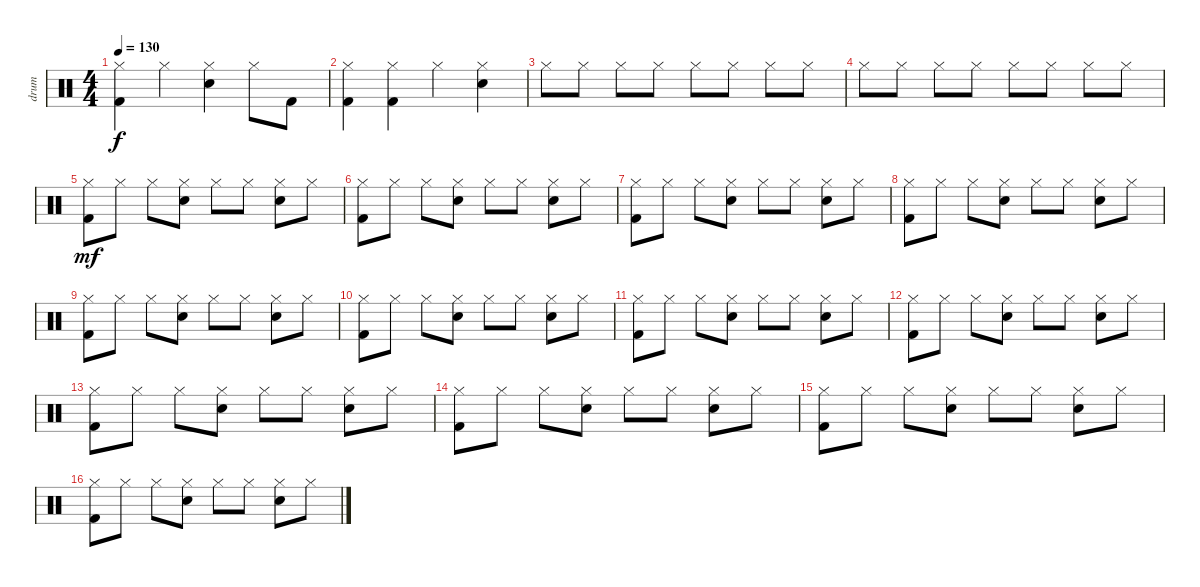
\track ("drum" "drum") {instrument percussion}
\staff {score}
\articulation defaults
\ts (4 4)
\tempo 130
\clef neutral
\ks c
("Hi-Hat (closed)" "Kick (hit) 2").4{dy f} "Hi-Hat (closed)".4 ("Hi-Hat (closed)" "Snare (hit) 2").4 "Hi-Hat (closed)".8 "Kick (hit) 2".8 |
("Hi-Hat (closed)" "Kick (hit) 2").4 ("Hi-Hat (closed)" "Kick (hit) 2").4 "Hi-Hat (closed)".4 ("Hi-Hat (closed)" "Snare (hit) 2").4 |
"Hi-Hat (closed)".8 "Hi-Hat (closed)".8 "Hi-Hat (closed)".8 "Hi-Hat (closed)".8 "Hi-Hat (closed)".8 "Hi-Hat (closed)".8 "Hi-Hat (closed)".8 "Hi-Hat (closed)".8 |
"Hi-Hat (closed)".8 "Hi-Hat (closed)".8 "Hi-Hat (closed)".8 "Hi-Hat (closed)".8 "Hi-Hat (closed)".8 "Hi-Hat (closed)".8 "Hi-Hat (closed)".8 "Hi-Hat (closed)".8 |
("Hi-Hat (closed)" "Kick (hit) 2").8{dy mf} "Hi-Hat (closed)".8 "Hi-Hat (closed)".8 ("Hi-Hat (closed)" "Snare (hit) 2").8 "Hi-Hat (closed)".8 "Hi-Hat (closed)".8 ("Hi-Hat (closed)" "Snare (hit) 2").8 "Hi-Hat (closed)".8 |
("Hi-Hat (closed)" "Kick (hit) 2").8 "Hi-Hat (closed)".8 "Hi-Hat (closed)".8 ("Hi-Hat (closed)" "Snare (hit) 2").8 "Hi-Hat (closed)".8 "Hi-Hat (closed)".8 ("Hi-Hat (closed)" "Snare (hit) 2").8 "Hi-Hat (closed)".8 |
("Hi-Hat (closed)" "Kick (hit) 2").8 "Hi-Hat (closed)".8 "Hi-Hat (closed)".8 ("Hi-Hat (closed)" "Snare (hit) 2").8 "Hi-Hat (closed)".8 "Hi-Hat (closed)".8 ("Hi-Hat (closed)" "Snare (hit) 2").8 "Hi-Hat (closed)".8 |
("Hi-Hat (closed)" "Kick (hit) 2").8 "Hi-Hat (closed)".8 "Hi-Hat (closed)".8 ("Hi-Hat (closed)" "Snare (hit) 2").8 "Hi-Hat (closed)".8 "Hi-Hat (closed)".8 ("Hi-Hat (closed)" "Snare (hit) 2").8 "Hi-Hat (closed)".8 |
("Hi-Hat (closed)" "Kick (hit) 2").8 "Hi-Hat (closed)".8 "Hi-Hat (closed)".8 ("Hi-Hat (closed)" "Snare (hit) 2").8 "Hi-Hat (closed)".8 "Hi-Hat (closed)".8 ("Hi-Hat (closed)" "Snare (hit) 2").8 "Hi-Hat (closed)".8 |
("Hi-Hat (closed)" "Kick (hit) 2").8 "Hi-Hat (closed)".8 "Hi-Hat (closed)".8 ("Hi-Hat (closed)" "Snare (hit) 2").8 "Hi-Hat (closed)".8 "Hi-Hat (closed)".8 ("Hi-Hat (closed)" "Snare (hit) 2").8 "Hi-Hat (closed)".8 |
("Hi-Hat (closed)" "Kick (hit) 2").8 "Hi-Hat (closed)".8 "Hi-Hat (closed)".8 ("Hi-Hat (closed)" "Snare (hit) 2").8 "Hi-Hat (closed)".8 "Hi-Hat (closed)".8 ("Hi-Hat (closed)" "Snare (hit) 2").8 "Hi-Hat (closed)".8 |
("Hi-Hat (closed)" "Kick (hit) 2").8 "Hi-Hat (closed)".8 "Hi-Hat (closed)".8 ("Hi-Hat (closed)" "Snare (hit) 2").8 "Hi-Hat (closed)".8 "Hi-Hat (closed)".8 ("Hi-Hat (closed)" "Snare (hit) 2").8 "Hi-Hat (closed)".8 |
("Hi-Hat (closed)" "Kick (hit) 2").8 "Hi-Hat (closed)".8 "Hi-Hat (closed)".8 ("Hi-Hat (closed)" "Snare (hit) 2").8 "Hi-Hat (closed)".8 "Hi-Hat (closed)".8 ("Hi-Hat (closed)" "Snare (hit) 2").8 "Hi-Hat (closed)".8 |
("Hi-Hat (closed)" "Kick (hit) 2").8 "Hi-Hat (closed)".8 "Hi-Hat (closed)".8 ("Hi-Hat (closed)" "Snare (hit) 2").8 "Hi-Hat (closed)".8 "Hi-Hat (closed)".8 ("Hi-Hat (closed)" "Snare (hit) 2").8 "Hi-Hat (closed)".8 |
("Hi-Hat (closed)" "Kick (hit) 2").8 "Hi-Hat (closed)".8 "Hi-Hat (closed)".8 ("Hi-Hat (closed)" "Snare (hit) 2").8 "Hi-Hat (closed)".8 "Hi-Hat (closed)".8 ("Hi-Hat (closed)" "Snare (hit) 2").8 "Hi-Hat (closed)".8 |
("Hi-Hat (closed)" "Kick (hit) 2").8 "Hi-Hat (closed)".8 "Hi-Hat (closed)".8 ("Hi-Hat (closed)" "Snare (hit) 2").8 "Hi-Hat (closed)".8 "Hi-Hat (closed)".8 ("Hi-Hat (closed)" "Snare (hit) 2").8 "Hi-Hat (closed)".8
